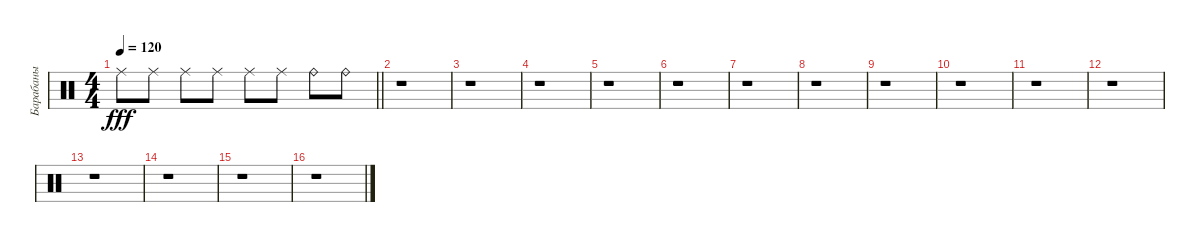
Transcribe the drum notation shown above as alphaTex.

\track ("Барабаны" "Барабаны") {instrument percussion}
\staff {score}
\articulation defaults
\ts (4 4)
\tempo 120
\clef neutral
\barLineRight lightlight
\ks c "Ride (middle)".8{dy fff} "Ride (middle)".8 "Ride (middle)".8 "Ride (middle)".8 "Ride (middle)".8 "Ride (middle)".8 "Ride (bell)".8 "Ride (bell)".8
|
\section ("" " ")
r.1 |
r.1 |
r.1 |
r.1 |
r.1 |
r.1 |
r.1 |
r.1 |
r.1 |
r.1 |
r.1 |
r.1 |
r.1 |
r.1 |
r.1
